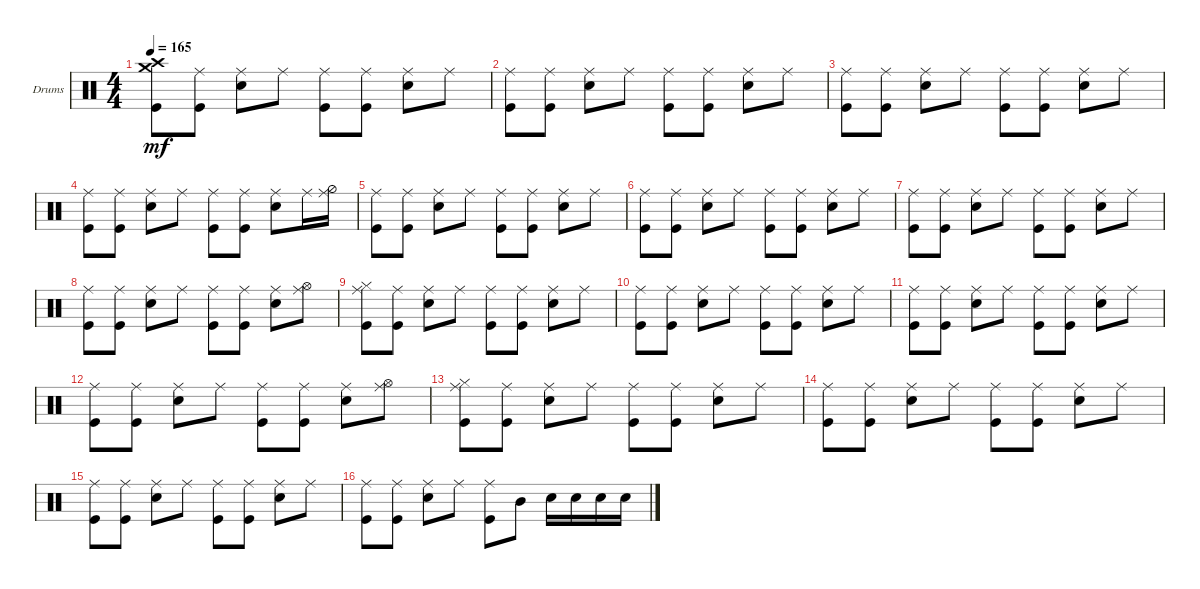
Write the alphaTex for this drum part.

\defaultSystemsLayout 4
\bracketExtendMode groupsimilarinstruments
\firstSystemTrackNameOrientation horizontal
\otherSystemsTrackNameOrientation horizontal
\track ("Drumkit" "Drums") {instrument percussion}
\staff {score}
\articulation defaults
\ts (4 4)
\tempo 165
\clef neutral
\ks c
("Kick (hit)" "Crash high (hit)" "Crash medium (hit)").8{dy mf} ("Kick (hit)" "Ride (middle)").8 ("Snare (hit) 2" "Ride (middle)").8 "Ride (middle)".8 ("Ride (middle)" "Kick (hit)").8 ("Ride (middle)" "Kick (hit)").8 ("Ride (middle)" "Snare (hit) 2").8 "Ride (middle)".8 |
("Ride (middle)" "Kick (hit)").8 ("Ride (middle)" "Kick (hit)").8 ("Ride (middle)" "Snare (hit) 2").8 "Ride (middle)".8 ("Ride (middle)" "Kick (hit)").8 ("Ride (middle)" "Kick (hit)").8 ("Ride (middle)" "Snare (hit) 2").8 "Ride (middle)".8 |
("Ride (middle)" "Kick (hit)").8 ("Ride (middle)" "Kick (hit)").8 ("Ride (middle)" "Snare (hit) 2").8 "Ride (middle)".8 ("Ride (middle)" "Kick (hit)").8 ("Ride (middle)" "Kick (hit)").8 ("Ride (middle)" "Snare (hit) 2").8 "Ride (middle)".8 |
("Ride (middle)" "Kick (hit)").8 ("Ride (middle)" "Kick (hit)").8 ("Ride (middle)" "Snare (hit) 2").8 "Ride (middle)".8 ("Ride (middle)" "Kick (hit)").8 ("Ride (middle)" "Kick (hit)").8 ("Ride (middle)" "Snare (hit) 2").8 "Ride (middle)".16 ("Ride (middle)" "Hi-Hat (half)").16 |
("Ride (middle)" "Kick (hit)").8 ("Ride (middle)" "Kick (hit)").8 ("Ride (middle)" "Snare (hit) 2").8 "Ride (middle)".8 ("Ride (middle)" "Kick (hit)").8 ("Ride (middle)" "Kick (hit)").8 ("Ride (middle)" "Snare (hit) 2").8 "Ride (middle)".8 |
("Ride (middle)" "Kick (hit)").8 ("Ride (middle)" "Kick (hit)").8 ("Ride (middle)" "Snare (hit) 2").8 "Ride (middle)".8 ("Ride (middle)" "Kick (hit)").8 ("Ride (middle)" "Kick (hit)").8 ("Ride (middle)" "Snare (hit) 2").8 "Ride (middle)".8 |
("Ride (middle)" "Kick (hit)").8 ("Ride (middle)" "Kick (hit)").8 ("Ride (middle)" "Snare (hit) 2").8 "Ride (middle)".8 ("Ride (middle)" "Kick (hit)").8 ("Ride (middle)" "Kick (hit)").8 ("Ride (middle)" "Snare (hit) 2").8 "Ride (middle)".8 |
("Ride (middle)" "Kick (hit)").8 ("Ride (middle)" "Kick (hit)").8 ("Ride (middle)" "Snare (hit) 2").8 "Ride (middle)".8 ("Ride (middle)" "Kick (hit)").8 ("Ride (middle)" "Kick (hit)").8 ("Ride (middle)" "Snare (hit) 2").8 ("Ride (middle)" "Hi-Hat (open)").8 |
("Ride (middle)" "Kick (hit)" "Hi-Hat (closed)").8 ("Ride (middle)" "Kick (hit)").8 ("Ride (middle)" "Snare (hit) 2").8 "Ride (middle)".8 ("Ride (middle)" "Kick (hit)").8 ("Ride (middle)" "Kick (hit)").8 ("Ride (middle)" "Snare (hit) 2").8 "Ride (middle)".8 |
("Ride (middle)" "Kick (hit)").8 ("Ride (middle)" "Kick (hit)").8 ("Ride (middle)" "Snare (hit) 2").8 "Ride (middle)".8 ("Ride (middle)" "Kick (hit)").8 ("Ride (middle)" "Kick (hit)").8 ("Ride (middle)" "Snare (hit) 2").8 "Ride (middle)".8 |
("Ride (middle)" "Kick (hit)").8 ("Ride (middle)" "Kick (hit)").8 ("Ride (middle)" "Snare (hit) 2").8 "Ride (middle)".8 ("Ride (middle)" "Kick (hit)").8 ("Ride (middle)" "Kick (hit)").8 ("Ride (middle)" "Snare (hit) 2").8 "Ride (middle)".8 |
("Ride (middle)" "Kick (hit)").8 ("Ride (middle)" "Kick (hit)").8 ("Ride (middle)" "Snare (hit) 2").8 "Ride (middle)".8 ("Ride (middle)" "Kick (hit)").8 ("Ride (middle)" "Kick (hit)").8 ("Ride (middle)" "Snare (hit) 2").8 ("Ride (middle)" "Hi-Hat (open)").8 |
("Ride (middle)" "Kick (hit)" "Hi-Hat (closed)").8 ("Ride (middle)" "Kick (hit)").8 ("Ride (middle)" "Snare (hit) 2").8 "Ride (middle)".8 ("Ride (middle)" "Kick (hit)").8 ("Ride (middle)" "Kick (hit)").8 ("Ride (middle)" "Snare (hit) 2").8 "Ride (middle)".8 |
("Ride (middle)" "Kick (hit)").8 ("Ride (middle)" "Kick (hit)").8 ("Ride (middle)" "Snare (hit) 2").8 "Ride (middle)".8 ("Ride (middle)" "Kick (hit)").8 ("Ride (middle)" "Kick (hit)").8 ("Ride (middle)" "Snare (hit) 2").8 "Ride (middle)".8 |
("Ride (middle)" "Kick (hit)").8 ("Ride (middle)" "Kick (hit)").8 ("Ride (middle)" "Snare (hit) 2").8 "Ride (middle)".8 ("Ride (middle)" "Kick (hit)").8 ("Ride (middle)" "Kick (hit)").8 ("Ride (middle)" "Snare (hit) 2").8 "Ride (middle)".8 |
("Ride (middle)" "Kick (hit)").8 ("Ride (middle)" "Kick (hit)").8 ("Ride (middle)" "Snare (hit) 2").8 "Ride (middle)".8 ("Ride (middle)" "Kick (hit)").8 "Mid Tom (hit)".8 "Snare (hit) 2".16 "Snare (hit) 2".16 "Snare (hit) 2".16 "Snare (hit) 2".16
